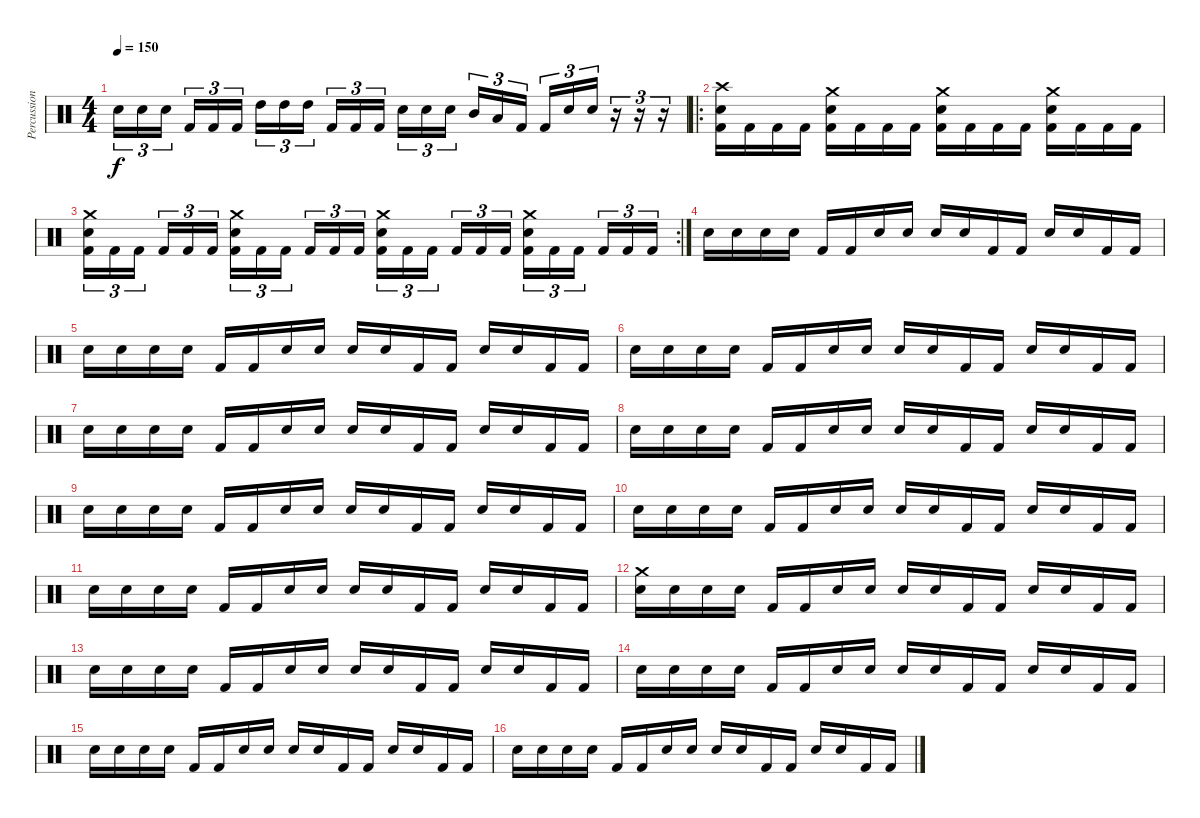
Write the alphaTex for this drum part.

\track ("Percussion" "Percussion") {instrument percussion}
\staff {score}
\articulation defaults
\ts (4 4)
\tempo 150
\clef neutral
\ks c "Electric Snare (hit)".16{tu (3 2) dy f} "Electric Snare (hit)".16{tu (3 2)} "Electric Snare (hit)".16{tu (3 2) beam splitsecondary} "Kick (hit) 2".16{tu (3 2)} "Kick (hit) 2".16{tu (3 2)} "Kick (hit) 2".16{tu (3 2)} "High Tom (hit)".16{tu (3 2)} "High Tom (hit)".16{tu (3 2)} "High Tom (hit)".16{tu (3 2) beam splitsecondary} "Kick (hit) 2".16{tu (3 2)} "Kick (hit) 2".16{tu (3 2)} "Kick (hit) 2".16{tu (3 2)} "Electric Snare (hit)".16{tu (3 2)} "Electric Snare (hit)".16{tu (3 2)} "Electric Snare (hit)".16{tu (3 2) beam splitsecondary} "Mid Tom (hit)".16{tu (3 2)} "Low Tom (hit)".16{tu (3 2)} "Kick (hit) 2".16{tu (3 2)} "Kick (hit) 2".16{tu (3 2)} "Electric Snare (hit)".16{tu (3 2)} "Electric Snare (hit)".16{tu (3 2)}
r.16{tu (3 2)} r.16{tu (3 2)} r.16{tu (3 2)} |
\ro
("Crash high (hit)" "Electric Snare (hit)" "Kick (hit) 2").16 "Kick (hit) 2".16 "Kick (hit) 2".16 "Kick (hit) 2".16 ("Crash medium (hit)" "Electric Snare (hit)" "Kick (hit) 2").16 "Kick (hit) 2".16 "Kick (hit) 2".16 "Kick (hit) 2".16 ("Crash medium (hit)" "Electric Snare (hit)" "Kick (hit) 2").16 "Kick (hit) 2".16 "Kick (hit) 2".16 "Kick (hit) 2".16 ("Crash medium (hit)" "Electric Snare (hit)" "Kick (hit) 2").16 "Kick (hit) 2".16 "Kick (hit) 2".16 "Kick (hit) 2".16 |
\rc 2
("Crash medium (hit)" "Electric Snare (hit)" "Kick (hit) 2").16{tu (3 2)} "Kick (hit) 2".16{tu (3 2)} "Kick (hit) 2".16{tu (3 2) beam splitsecondary} "Kick (hit) 2".16{tu (3 2)} "Kick (hit) 2".16{tu (3 2)} "Kick (hit) 2".16{tu (3 2)} ("Crash medium (hit)" "Electric Snare (hit)" "Kick (hit) 2").16{tu (3 2)} "Kick (hit) 2".16{tu (3 2)} "Kick (hit) 2".16{tu (3 2) beam splitsecondary} "Kick (hit) 2".16{tu (3 2)} "Kick (hit) 2".16{tu (3 2)} "Kick (hit) 2".16{tu (3 2)} ("Crash medium (hit)" "Electric Snare (hit)" "Kick (hit) 2").16{tu (3 2)} "Kick (hit) 2".16{tu (3 2)} "Kick (hit) 2".16{tu (3 2) beam splitsecondary} "Kick (hit) 2".16{tu (3 2)} "Kick (hit) 2".16{tu (3 2)} "Kick (hit) 2".16{tu (3 2)} ("Crash medium (hit)" "Electric Snare (hit)" "Kick (hit) 2").16{tu (3 2)} "Kick (hit) 2".16{tu (3 2)} "Kick (hit) 2".16{tu (3 2) beam splitsecondary} "Kick (hit) 2".16{tu (3 2)} "Kick (hit) 2".16{tu (3 2)} "Kick (hit) 2".16{tu (3 2)} |
"Electric Snare (hit)".16 "Electric Snare (hit)".16 "Electric Snare (hit)".16 "Electric Snare (hit)".16 "Kick (hit) 2".16 "Kick (hit) 2".16 "Electric Snare (hit)".16 "Electric Snare (hit)".16 "Electric Snare (hit)".16 "Electric Snare (hit)".16 "Kick (hit) 2".16 "Kick (hit) 2".16 "Electric Snare (hit)".16 "Electric Snare (hit)".16 "Kick (hit) 2".16 "Kick (hit) 2".16 |
"Electric Snare (hit)".16 "Electric Snare (hit)".16 "Electric Snare (hit)".16 "Electric Snare (hit)".16 "Kick (hit) 2".16 "Kick (hit) 2".16 "Electric Snare (hit)".16 "Electric Snare (hit)".16 "Electric Snare (hit)".16 "Electric Snare (hit)".16 "Kick (hit) 2".16 "Kick (hit) 2".16 "Electric Snare (hit)".16 "Electric Snare (hit)".16 "Kick (hit) 2".16 "Kick (hit) 2".16 |
"Electric Snare (hit)".16 "Electric Snare (hit)".16 "Electric Snare (hit)".16 "Electric Snare (hit)".16 "Kick (hit) 2".16 "Kick (hit) 2".16 "Electric Snare (hit)".16 "Electric Snare (hit)".16 "Electric Snare (hit)".16 "Electric Snare (hit)".16 "Kick (hit) 2".16 "Kick (hit) 2".16 "Electric Snare (hit)".16 "Electric Snare (hit)".16 "Kick (hit) 2".16 "Kick (hit) 2".16 |
"Electric Snare (hit)".16 "Electric Snare (hit)".16 "Electric Snare (hit)".16 "Electric Snare (hit)".16 "Kick (hit) 2".16 "Kick (hit) 2".16 "Electric Snare (hit)".16 "Electric Snare (hit)".16 "Electric Snare (hit)".16 "Electric Snare (hit)".16 "Kick (hit) 2".16 "Kick (hit) 2".16 "Electric Snare (hit)".16 "Electric Snare (hit)".16 "Kick (hit) 2".16 "Kick (hit) 2".16 |
"Electric Snare (hit)".16 "Electric Snare (hit)".16 "Electric Snare (hit)".16 "Electric Snare (hit)".16 "Kick (hit) 2".16 "Kick (hit) 2".16 "Electric Snare (hit)".16 "Electric Snare (hit)".16 "Electric Snare (hit)".16 "Electric Snare (hit)".16 "Kick (hit) 2".16 "Kick (hit) 2".16 "Electric Snare (hit)".16 "Electric Snare (hit)".16 "Kick (hit) 2".16 "Kick (hit) 2".16 |
"Electric Snare (hit)".16 "Electric Snare (hit)".16 "Electric Snare (hit)".16 "Electric Snare (hit)".16 "Kick (hit) 2".16 "Kick (hit) 2".16 "Electric Snare (hit)".16 "Electric Snare (hit)".16 "Electric Snare (hit)".16 "Electric Snare (hit)".16 "Kick (hit) 2".16 "Kick (hit) 2".16 "Electric Snare (hit)".16 "Electric Snare (hit)".16 "Kick (hit) 2".16 "Kick (hit) 2".16 |
"Electric Snare (hit)".16 "Electric Snare (hit)".16 "Electric Snare (hit)".16 "Electric Snare (hit)".16 "Kick (hit) 2".16 "Kick (hit) 2".16 "Electric Snare (hit)".16 "Electric Snare (hit)".16 "Electric Snare (hit)".16 "Electric Snare (hit)".16 "Kick (hit) 2".16 "Kick (hit) 2".16 "Electric Snare (hit)".16 "Electric Snare (hit)".16 "Kick (hit) 2".16 "Kick (hit) 2".16 |
"Electric Snare (hit)".16 "Electric Snare (hit)".16 "Electric Snare (hit)".16 "Electric Snare (hit)".16 "Kick (hit) 2".16 "Kick (hit) 2".16 "Electric Snare (hit)".16 "Electric Snare (hit)".16 "Electric Snare (hit)".16 "Electric Snare (hit)".16 "Kick (hit) 2".16 "Kick (hit) 2".16 "Electric Snare (hit)".16 "Electric Snare (hit)".16 "Kick (hit) 2".16 "Kick (hit) 2".16 |
("Crash medium (hit)" "Electric Snare (hit)").16 "Electric Snare (hit)".16 "Electric Snare (hit)".16 "Electric Snare (hit)".16 "Kick (hit) 2".16 "Kick (hit) 2".16 "Electric Snare (hit)".16 "Electric Snare (hit)".16 "Electric Snare (hit)".16 "Electric Snare (hit)".16 "Kick (hit) 2".16 "Kick (hit) 2".16 "Electric Snare (hit)".16 "Electric Snare (hit)".16 "Kick (hit) 2".16 "Kick (hit) 2".16 |
"Electric Snare (hit)".16 "Electric Snare (hit)".16 "Electric Snare (hit)".16 "Electric Snare (hit)".16 "Kick (hit) 2".16 "Kick (hit) 2".16 "Electric Snare (hit)".16 "Electric Snare (hit)".16 "Electric Snare (hit)".16 "Electric Snare (hit)".16 "Kick (hit) 2".16 "Kick (hit) 2".16 "Electric Snare (hit)".16 "Electric Snare (hit)".16 "Kick (hit) 2".16 "Kick (hit) 2".16 |
"Electric Snare (hit)".16 "Electric Snare (hit)".16 "Electric Snare (hit)".16 "Electric Snare (hit)".16 "Kick (hit) 2".16 "Kick (hit) 2".16 "Electric Snare (hit)".16 "Electric Snare (hit)".16 "Electric Snare (hit)".16 "Electric Snare (hit)".16 "Kick (hit) 2".16 "Kick (hit) 2".16 "Electric Snare (hit)".16 "Electric Snare (hit)".16 "Kick (hit) 2".16 "Kick (hit) 2".16 |
"Electric Snare (hit)".16 "Electric Snare (hit)".16 "Electric Snare (hit)".16 "Electric Snare (hit)".16 "Kick (hit) 2".16 "Kick (hit) 2".16 "Electric Snare (hit)".16 "Electric Snare (hit)".16 "Electric Snare (hit)".16 "Electric Snare (hit)".16 "Kick (hit) 2".16 "Kick (hit) 2".16 "Electric Snare (hit)".16 "Electric Snare (hit)".16 "Kick (hit) 2".16 "Kick (hit) 2".16 |
"Electric Snare (hit)".16 "Electric Snare (hit)".16 "Electric Snare (hit)".16 "Electric Snare (hit)".16 "Kick (hit) 2".16 "Kick (hit) 2".16 "Electric Snare (hit)".16 "Electric Snare (hit)".16 "Electric Snare (hit)".16 "Electric Snare (hit)".16 "Kick (hit) 2".16 "Kick (hit) 2".16 "Electric Snare (hit)".16 "Electric Snare (hit)".16 "Kick (hit) 2".16 "Kick (hit) 2".16
